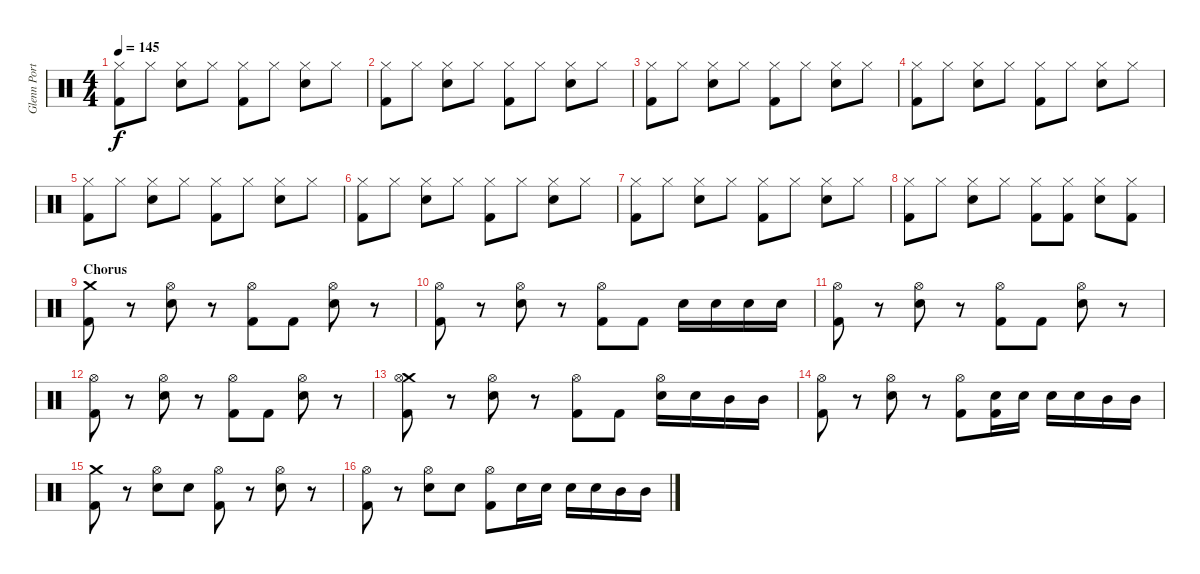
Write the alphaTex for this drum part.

\track ("Glenn Porter - Drums" "Glenn Port") {instrument percussion}
\staff {score}
\articulation defaults
\ts (4 4)
\tempo 145
\clef neutral
\ks c
("Hi-Hat (closed)" "Kick (hit) 2").8{dy f} "Hi-Hat (closed)".8 ("Hi-Hat (closed)" "Electric Snare (hit)").8 "Hi-Hat (closed)".8 ("Hi-Hat (closed)" "Kick (hit) 2").8 "Hi-Hat (closed)".8 ("Hi-Hat (closed)" "Electric Snare (hit)").8 "Hi-Hat (closed)".8 |
("Hi-Hat (closed)" "Kick (hit) 2").8 "Hi-Hat (closed)".8 ("Hi-Hat (closed)" "Electric Snare (hit)").8 "Hi-Hat (closed)".8 ("Hi-Hat (closed)" "Kick (hit) 2").8 "Hi-Hat (closed)".8 ("Hi-Hat (closed)" "Electric Snare (hit)").8 "Hi-Hat (closed)".8 |
("Hi-Hat (closed)" "Kick (hit) 2").8 "Hi-Hat (closed)".8 ("Hi-Hat (closed)" "Electric Snare (hit)").8 "Hi-Hat (closed)".8 ("Hi-Hat (closed)" "Kick (hit) 2").8 "Hi-Hat (closed)".8 ("Hi-Hat (closed)" "Electric Snare (hit)").8 "Hi-Hat (closed)".8 |
("Hi-Hat (closed)" "Kick (hit) 2").8 "Hi-Hat (closed)".8 ("Hi-Hat (closed)" "Electric Snare (hit)").8 "Hi-Hat (closed)".8 ("Hi-Hat (closed)" "Kick (hit) 2").8 "Hi-Hat (closed)".8 ("Hi-Hat (closed)" "Electric Snare (hit)").8 "Hi-Hat (closed)".8 |
("Hi-Hat (closed)" "Kick (hit) 2").8 "Hi-Hat (closed)".8 ("Hi-Hat (closed)" "Electric Snare (hit)").8 "Hi-Hat (closed)".8 ("Hi-Hat (closed)" "Kick (hit) 2").8 "Hi-Hat (closed)".8 ("Hi-Hat (closed)" "Electric Snare (hit)").8 "Hi-Hat (closed)".8 |
("Hi-Hat (closed)" "Kick (hit) 2").8 "Hi-Hat (closed)".8 ("Hi-Hat (closed)" "Electric Snare (hit)").8 "Hi-Hat (closed)".8 ("Hi-Hat (closed)" "Kick (hit) 2").8 "Hi-Hat (closed)".8 ("Hi-Hat (closed)" "Electric Snare (hit)").8 "Hi-Hat (closed)".8 |
("Hi-Hat (closed)" "Kick (hit) 2").8 "Hi-Hat (closed)".8 ("Hi-Hat (closed)" "Electric Snare (hit)").8 "Hi-Hat (closed)".8 ("Hi-Hat (closed)" "Kick (hit) 2").8 "Hi-Hat (closed)".8 ("Hi-Hat (closed)" "Electric Snare (hit)").8 "Hi-Hat (closed)".8 |
("Hi-Hat (closed)" "Kick (hit) 2").8 "Hi-Hat (closed)".8 ("Hi-Hat (closed)" "Electric Snare (hit)").8 "Hi-Hat (closed)".8 ("Hi-Hat (closed)" "Kick (hit) 2").8 ("Hi-Hat (closed)" "Kick (hit) 2").8 ("Hi-Hat (closed)" "Electric Snare (hit)").8 ("Hi-Hat (closed)" "Kick (hit) 2").8 |
\section ("" "Chorus")
("Crash medium (hit)" "Kick (hit) 2").8 r.8 ("Hi-Hat (open)" "Electric Snare (hit)").8 r.8 ("Hi-Hat (open)" "Kick (hit) 2").8 "Kick (hit) 2".8 ("Hi-Hat (open)" "Electric Snare (hit)").8 r.8 |
("Hi-Hat (open)" "Kick (hit) 2").8 r.8 ("Hi-Hat (open)" "Electric Snare (hit)").8 r.8 ("Hi-Hat (open)" "Kick (hit) 2").8 "Kick (hit) 2".8 "Electric Snare (hit)".16 "Electric Snare (hit)".16 "Electric Snare (hit)".16 "Electric Snare (hit)".16 |
("Hi-Hat (open)" "Kick (hit) 2").8 r.8 ("Hi-Hat (open)" "Electric Snare (hit)").8 r.8 ("Hi-Hat (open)" "Kick (hit) 2").8 "Kick (hit) 2".8 ("Hi-Hat (open)" "Electric Snare (hit)").8 r.8 |
("Hi-Hat (open)" "Kick (hit) 2").8 r.8 ("Hi-Hat (open)" "Electric Snare (hit)").8 r.8 ("Hi-Hat (open)" "Kick (hit) 2").8 "Kick (hit) 2".8 ("Hi-Hat (open)" "Electric Snare (hit)").8 r.8 |
("Crash medium (hit)" "Hi-Hat (open)" "Kick (hit) 2").8 r.8 ("Hi-Hat (open)" "Electric Snare (hit)").8 r.8 ("Hi-Hat (open)" "Kick (hit) 2").8 "Kick (hit) 2".8 ("Hi-Hat (open)" "Electric Snare (hit)").16 "Electric Snare (hit)".16 "Mid Tom (hit)".16 "Mid Tom (hit)".16 |
("Hi-Hat (open)" "Kick (hit) 2").8 r.8 ("Hi-Hat (open)" "Electric Snare (hit)").8 r.8 ("Hi-Hat (open)" "Kick (hit) 2").8 ("Electric Snare (hit)" "Kick (hit) 2").16 "Electric Snare (hit)".16 "Electric Snare (hit)".16 "Electric Snare (hit)".16 "Mid Tom (hit)".16 "Mid Tom (hit)".16 |
("Crash medium (hit)" "Kick (hit) 2").8 r.8 ("Hi-Hat (open)" "Electric Snare (hit)").8 "Electric Snare (hit)".8 ("Hi-Hat (open)" "Kick (hit) 2").8 r.8 ("Hi-Hat (open)" "Electric Snare (hit)").8 r.8 |
("Hi-Hat (open)" "Kick (hit) 2").8 r.8 ("Hi-Hat (open)" "Electric Snare (hit)").8 "Electric Snare (hit)".8 ("Hi-Hat (open)" "Kick (hit) 2").8 "Electric Snare (hit)".16 "Electric Snare (hit)".16 "Electric Snare (hit)".16 "Electric Snare (hit)".16 "Mid Tom (hit)".16 "Mid Tom (hit)".16
